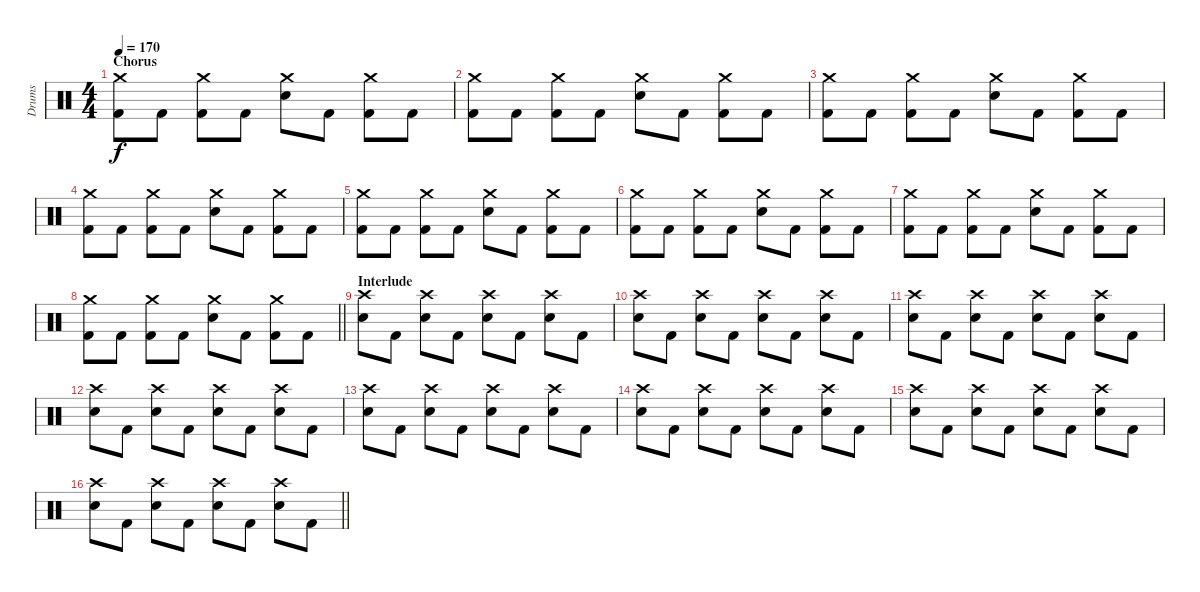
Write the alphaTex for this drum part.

\track ("Drums" "Drums") {instrument percussion}
\staff {score}
\articulation defaults
\ts (4 4)
\section ("" "Chorus")
\tempo 170
\clef neutral
\ks c
("Crash medium (hit)" "Kick (hit) 2").8{dy f} "Kick (hit) 2".8 ("Crash medium (hit)" "Kick (hit) 2").8 "Kick (hit) 2".8 ("Electric Snare (hit)" "Crash medium (hit)").8 "Kick (hit) 2".8 ("Crash medium (hit)" "Kick (hit) 2").8 "Kick (hit) 2".8 |
("Crash medium (hit)" "Kick (hit) 2").8 "Kick (hit) 2".8 ("Crash medium (hit)" "Kick (hit) 2").8 "Kick (hit) 2".8 ("Electric Snare (hit)" "Crash medium (hit)").8 "Kick (hit) 2".8 ("Crash medium (hit)" "Kick (hit) 2").8 "Kick (hit) 2".8 |
("Crash medium (hit)" "Kick (hit) 2").8 "Kick (hit) 2".8 ("Crash medium (hit)" "Kick (hit) 2").8 "Kick (hit) 2".8 ("Electric Snare (hit)" "Crash medium (hit)").8 "Kick (hit) 2".8 ("Crash medium (hit)" "Kick (hit) 2").8 "Kick (hit) 2".8 |
("Crash medium (hit)" "Kick (hit) 2").8 "Kick (hit) 2".8 ("Crash medium (hit)" "Kick (hit) 2").8 "Kick (hit) 2".8 ("Electric Snare (hit)" "Crash medium (hit)").8 "Kick (hit) 2".8 ("Crash medium (hit)" "Kick (hit) 2").8 "Kick (hit) 2".8 |
("Crash medium (hit)" "Kick (hit) 2").8 "Kick (hit) 2".8 ("Crash medium (hit)" "Kick (hit) 2").8 "Kick (hit) 2".8 ("Electric Snare (hit)" "Crash medium (hit)").8 "Kick (hit) 2".8 ("Crash medium (hit)" "Kick (hit) 2").8 "Kick (hit) 2".8 |
("Crash medium (hit)" "Kick (hit) 2").8 "Kick (hit) 2".8 ("Crash medium (hit)" "Kick (hit) 2").8 "Kick (hit) 2".8 ("Electric Snare (hit)" "Crash medium (hit)").8 "Kick (hit) 2".8 ("Crash medium (hit)" "Kick (hit) 2").8 "Kick (hit) 2".8 |
("Crash medium (hit)" "Kick (hit) 2").8 "Kick (hit) 2".8 ("Crash medium (hit)" "Kick (hit) 2").8 "Kick (hit) 2".8 ("Electric Snare (hit)" "Crash medium (hit)").8 "Kick (hit) 2".8 ("Crash medium (hit)" "Kick (hit) 2").8 "Kick (hit) 2".8 |
\barLineRight lightlight
("Crash medium (hit)" "Kick (hit) 2").8 "Kick (hit) 2".8 ("Crash medium (hit)" "Kick (hit) 2").8 "Kick (hit) 2".8 ("Electric Snare (hit)" "Crash medium (hit)").8 "Kick (hit) 2".8 ("Crash medium (hit)" "Kick (hit) 2").8 "Kick (hit) 2".8 |
\section ("" "Interlude")
("Electric Snare (hit)" "Crash high (hit)").8 "Kick (hit) 2".8 ("Electric Snare (hit)" "Crash high (hit)").8 "Kick (hit) 2".8 ("Electric Snare (hit)" "Crash high (hit)").8 "Kick (hit) 2".8 ("Electric Snare (hit)" "Crash high (hit)").8 "Kick (hit) 2".8 |
("Electric Snare (hit)" "Crash high (hit)").8 "Kick (hit) 2".8 ("Electric Snare (hit)" "Crash high (hit)").8 "Kick (hit) 2".8 ("Electric Snare (hit)" "Crash high (hit)").8 "Kick (hit) 2".8 ("Electric Snare (hit)" "Crash high (hit)").8 "Kick (hit) 2".8 |
("Electric Snare (hit)" "Crash high (hit)").8 "Kick (hit) 2".8 ("Electric Snare (hit)" "Crash high (hit)").8 "Kick (hit) 2".8 ("Electric Snare (hit)" "Crash high (hit)").8 "Kick (hit) 2".8 ("Electric Snare (hit)" "Crash high (hit)").8 "Kick (hit) 2".8 |
("Electric Snare (hit)" "Crash high (hit)").8 "Kick (hit) 2".8 ("Electric Snare (hit)" "Crash high (hit)").8 "Kick (hit) 2".8 ("Electric Snare (hit)" "Crash high (hit)").8 "Kick (hit) 2".8 ("Electric Snare (hit)" "Crash high (hit)").8 "Kick (hit) 2".8 |
("Electric Snare (hit)" "Crash high (hit)").8 "Kick (hit) 2".8 ("Electric Snare (hit)" "Crash high (hit)").8 "Kick (hit) 2".8 ("Electric Snare (hit)" "Crash high (hit)").8 "Kick (hit) 2".8 ("Electric Snare (hit)" "Crash high (hit)").8 "Kick (hit) 2".8 |
("Electric Snare (hit)" "Crash high (hit)").8 "Kick (hit) 2".8 ("Electric Snare (hit)" "Crash high (hit)").8 "Kick (hit) 2".8 ("Electric Snare (hit)" "Crash high (hit)").8 "Kick (hit) 2".8 ("Electric Snare (hit)" "Crash high (hit)").8 "Kick (hit) 2".8 |
("Electric Snare (hit)" "Crash high (hit)").8 "Kick (hit) 2".8 ("Electric Snare (hit)" "Crash high (hit)").8 "Kick (hit) 2".8 ("Electric Snare (hit)" "Crash high (hit)").8 "Kick (hit) 2".8 ("Electric Snare (hit)" "Crash high (hit)").8 "Kick (hit) 2".8 |
\barLineRight lightlight
("Electric Snare (hit)" "Crash high (hit)").8 "Kick (hit) 2".8 ("Electric Snare (hit)" "Crash high (hit)").8 "Kick (hit) 2".8 ("Electric Snare (hit)" "Crash high (hit)").8 "Kick (hit) 2".8 ("Electric Snare (hit)" "Crash high (hit)").8 "Kick (hit) 2".8
